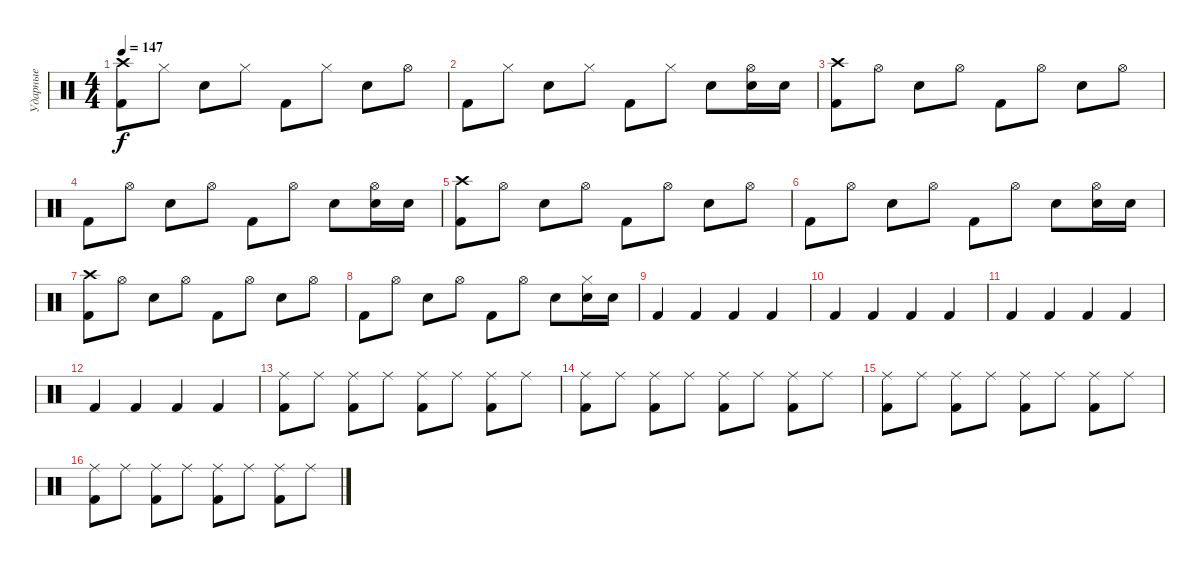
\track ("Ударные" "Ударные") {instrument percussion}
\staff {score}
\articulation defaults
\ts (4 4)
\tempo 147
\clef neutral
\ks c
("Crash high (hit)" "Kick (hit) 2").8{dy f} "Hi-Hat (closed)".8 "Electric Snare (hit)".8 "Hi-Hat (closed)".8 "Kick (hit) 2".8 "Hi-Hat (closed)".8 "Electric Snare (hit)".8 "Hi-Hat (open)".8 |
"Kick (hit) 2".8 "Hi-Hat (closed)".8 "Electric Snare (hit)".8 "Hi-Hat (closed)".8 "Kick (hit) 2".8 "Hi-Hat (closed)".8 "Electric Snare (hit)".8 ("Hi-Hat (open)" "Electric Snare (hit)").16 "Electric Snare (hit)".16 |
("Crash high (hit)" "Kick (hit) 2").8 "Hi-Hat (open)".8 "Electric Snare (hit)".8 "Hi-Hat (open)".8 "Kick (hit) 2".8 "Hi-Hat (open)".8 "Electric Snare (hit)".8 "Hi-Hat (open)".8 |
"Kick (hit) 2".8 "Hi-Hat (open)".8 "Electric Snare (hit)".8 "Hi-Hat (open)".8 "Kick (hit) 2".8 "Hi-Hat (open)".8 "Electric Snare (hit)".8 ("Hi-Hat (open)" "Electric Snare (hit)").16 "Electric Snare (hit)".16 |
("Crash high (hit)" "Kick (hit) 2").8 "Hi-Hat (open)".8 "Electric Snare (hit)".8 "Hi-Hat (open)".8 "Kick (hit) 2".8 "Hi-Hat (open)".8 "Electric Snare (hit)".8 "Hi-Hat (open)".8 |
"Kick (hit) 2".8 "Hi-Hat (open)".8 "Electric Snare (hit)".8 "Hi-Hat (open)".8 "Kick (hit) 2".8 "Hi-Hat (open)".8 "Electric Snare (hit)".8 ("Hi-Hat (open)" "Electric Snare (hit)").16 "Electric Snare (hit)".16 |
("Crash high (hit)" "Kick (hit) 2").8 "Hi-Hat (open)".8 "Electric Snare (hit)".8 "Hi-Hat (open)".8 "Kick (hit) 2".8 "Hi-Hat (open)".8 "Electric Snare (hit)".8 "Hi-Hat (open)".8 |
"Kick (hit) 2".8 "Hi-Hat (open)".8 "Electric Snare (hit)".8 "Hi-Hat (open)".8 "Kick (hit) 2".8 "Hi-Hat (open)".8 "Electric Snare (hit)".8 ("Hi-Hat (closed)" "Electric Snare (hit)").16 "Electric Snare (hit)".16 |
"Kick (hit) 2".4 "Kick (hit) 2".4 "Kick (hit) 2".4 "Kick (hit) 2".4 |
"Kick (hit) 2".4 "Kick (hit) 2".4 "Kick (hit) 2".4 "Kick (hit) 2".4 |
"Kick (hit) 2".4 "Kick (hit) 2".4 "Kick (hit) 2".4 "Kick (hit) 2".4 |
"Kick (hit) 2".4 "Kick (hit) 2".4 "Kick (hit) 2".4 "Kick (hit) 2".4 |
("Ride (middle)" "Kick (hit) 2").8 "Ride (middle)".8 ("Ride (middle)" "Kick (hit) 2").8 "Ride (middle)".8 ("Ride (middle)" "Kick (hit) 2").8 "Ride (middle)".8 ("Ride (middle)" "Kick (hit) 2").8 "Ride (middle)".8 |
("Ride (middle)" "Kick (hit) 2").8 "Ride (middle)".8 ("Ride (middle)" "Kick (hit) 2").8 "Ride (middle)".8 ("Ride (middle)" "Kick (hit) 2").8 "Ride (middle)".8 ("Ride (middle)" "Kick (hit) 2").8 "Ride (middle)".8 |
("Ride (middle)" "Kick (hit) 2").8 "Ride (middle)".8 ("Ride (middle)" "Kick (hit) 2").8 "Ride (middle)".8 ("Ride (middle)" "Kick (hit) 2").8 "Ride (middle)".8 ("Ride (middle)" "Kick (hit) 2").8 "Ride (middle)".8 |
("Ride (middle)" "Kick (hit) 2").8 "Ride (middle)".8 ("Ride (middle)" "Kick (hit) 2").8 "Ride (middle)".8 ("Ride (middle)" "Kick (hit) 2").8 "Ride (middle)".8 ("Ride (middle)" "Kick (hit) 2").8 "Ride (middle)".8
